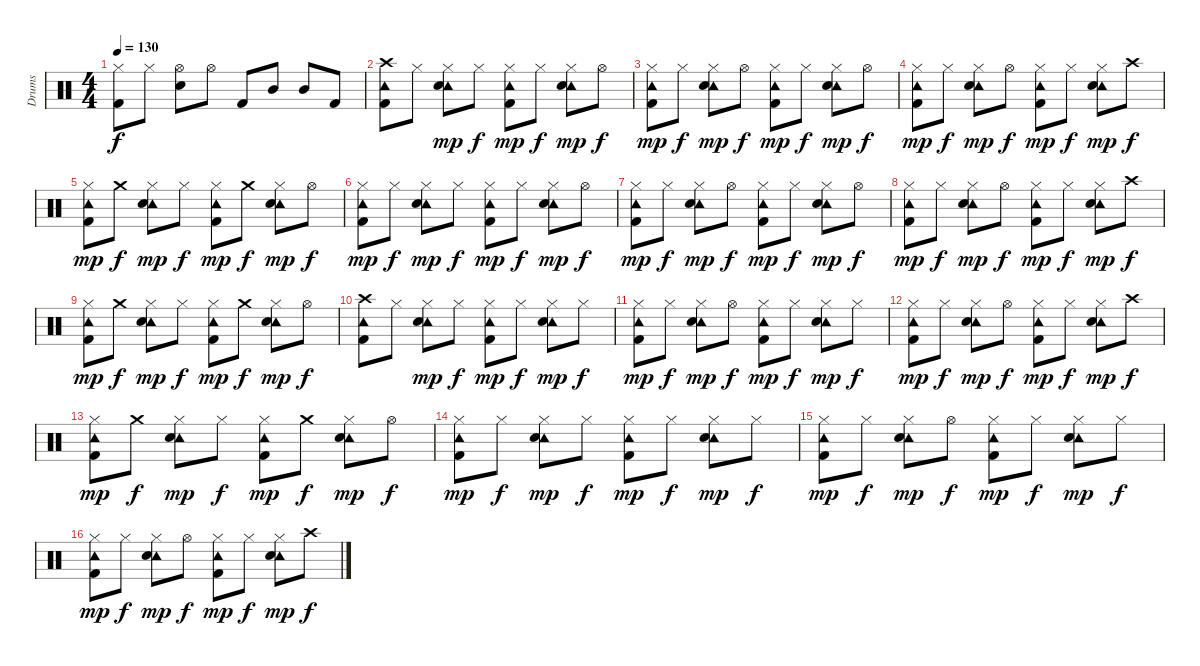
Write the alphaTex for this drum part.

\track ("Drums" "Drums") {instrument percussion}
\staff {score}
\articulation defaults
\ts (4 4)
\tempo 130
\clef neutral
\ks c
("Hi-Hat (closed)" "Kick (hit) 2").8{dy f} "Hi-Hat (closed)".8 ("Hi-Hat (open)" "Electric Snare (hit)").8 "Hi-Hat (open)".8 "Kick (hit) 2".8 "Mid Tom (hit)".8 "Mid Tom (hit)".8 "Kick (hit) 2".8 |
("Crash high (hit)" "Tambourine (hit)" "Kick (hit) 2").8 "Hi-Hat (closed)".8 ("Hi-Hat (closed)" "Tambourine (hit)" "Electric Snare (hit)").8{dy mp} "Hi-Hat (closed)".8{dy f} ("Hi-Hat (closed)" "Tambourine (hit)" "Kick (hit) 2").8{dy mp} "Hi-Hat (closed)".8{dy f} ("Hi-Hat (closed)" "Tambourine (hit)" "Electric Snare (hit)").8{dy mp} "Hi-Hat (open)".8{dy f} |
("Hi-Hat (closed)" "Tambourine (hit)" "Kick (hit) 2").8{dy mp} "Hi-Hat (closed)".8{dy f} ("Hi-Hat (closed)" "Tambourine (hit)" "Electric Snare (hit)").8{dy mp} "Hi-Hat (open)".8{dy f} ("Hi-Hat (closed)" "Tambourine (hit)" "Kick (hit) 2").8{dy mp} "Hi-Hat (closed)".8{dy f} ("Hi-Hat (closed)" "Tambourine (hit)" "Electric Snare (hit)").8{dy mp} "Hi-Hat (open)".8{dy f} |
("Hi-Hat (closed)" "Tambourine (hit)" "Kick (hit) 2").8{dy mp} "Hi-Hat (closed)".8{dy f} ("Hi-Hat (closed)" "Tambourine (hit)" "Electric Snare (hit)").8{dy mp} "Hi-Hat (open)".8{dy f} ("Hi-Hat (closed)" "Tambourine (hit)" "Kick (hit) 2").8{dy mp} "Hi-Hat (closed)".8{dy f} ("Hi-Hat (closed)" "Tambourine (hit)" "Electric Snare (hit)").8{dy mp} "Crash high (hit)".8{dy f} |
("Hi-Hat (closed)" "Tambourine (hit)" "Kick (hit) 2").8{dy mp} "Crash medium (hit)".8{dy f} ("Hi-Hat (closed)" "Tambourine (hit)" "Electric Snare (hit)").8{dy mp} "Hi-Hat (closed)".8{dy f} ("Hi-Hat (closed)" "Tambourine (hit)" "Kick (hit) 2").8{dy mp} "Crash medium (hit)".8{dy f} ("Hi-Hat (closed)" "Tambourine (hit)" "Electric Snare (hit)").8{dy mp} "Hi-Hat (open)".8{dy f} |
("Hi-Hat (closed)" "Tambourine (hit)" "Kick (hit) 2").8{dy mp} "Hi-Hat (closed)".8{dy f} ("Hi-Hat (closed)" "Tambourine (hit)" "Electric Snare (hit)").8{dy mp} "Hi-Hat (closed)".8{dy f} ("Hi-Hat (closed)" "Tambourine (hit)" "Kick (hit) 2").8{dy mp} "Hi-Hat (closed)".8{dy f} ("Hi-Hat (closed)" "Tambourine (hit)" "Electric Snare (hit)").8{dy mp} "Hi-Hat (open)".8{dy f} |
("Hi-Hat (closed)" "Tambourine (hit)" "Kick (hit) 2").8{dy mp} "Hi-Hat (closed)".8{dy f} ("Hi-Hat (closed)" "Tambourine (hit)" "Electric Snare (hit)").8{dy mp} "Hi-Hat (open)".8{dy f} ("Hi-Hat (closed)" "Tambourine (hit)" "Kick (hit) 2").8{dy mp} "Hi-Hat (closed)".8{dy f} ("Hi-Hat (closed)" "Tambourine (hit)" "Electric Snare (hit)").8{dy mp} "Hi-Hat (open)".8{dy f} |
("Hi-Hat (closed)" "Tambourine (hit)" "Kick (hit) 2").8{dy mp} "Hi-Hat (closed)".8{dy f} ("Hi-Hat (closed)" "Tambourine (hit)" "Electric Snare (hit)").8{dy mp} "Hi-Hat (open)".8{dy f} ("Hi-Hat (closed)" "Tambourine (hit)" "Kick (hit) 2").8{dy mp} "Hi-Hat (closed)".8{dy f} ("Hi-Hat (closed)" "Tambourine (hit)" "Electric Snare (hit)").8{dy mp} "Crash high (hit)".8{dy f} |
("Hi-Hat (closed)" "Tambourine (hit)" "Kick (hit) 2").8{dy mp} "Crash medium (hit)".8{dy f} ("Hi-Hat (closed)" "Tambourine (hit)" "Electric Snare (hit)").8{dy mp} "Hi-Hat (closed)".8{dy f} ("Hi-Hat (closed)" "Tambourine (hit)" "Kick (hit) 2").8{dy mp} "Crash medium (hit)".8{dy f} ("Hi-Hat (closed)" "Tambourine (hit)" "Electric Snare (hit)").8{dy mp} "Hi-Hat (open)".8{dy f} |
("Crash high (hit)" "Tambourine (hit)" "Kick (hit) 2").8 "Hi-Hat (closed)".8 ("Hi-Hat (closed)" "Tambourine (hit)" "Electric Snare (hit)").8{dy mp} "Hi-Hat (closed)".8{dy f} ("Hi-Hat (closed)" "Tambourine (hit)" "Kick (hit) 2").8{dy mp} "Hi-Hat (closed)".8{dy f} ("Hi-Hat (closed)" "Tambourine (hit)" "Electric Snare (hit)").8{dy mp} "Hi-Hat (closed)".8{dy f} |
("Hi-Hat (closed)" "Tambourine (hit)" "Kick (hit) 2").8{dy mp} "Hi-Hat (closed)".8{dy f} ("Hi-Hat (closed)" "Tambourine (hit)" "Electric Snare (hit)").8{dy mp} "Hi-Hat (open)".8{dy f} ("Hi-Hat (closed)" "Tambourine (hit)" "Kick (hit) 2").8{dy mp} "Hi-Hat (closed)".8{dy f} ("Hi-Hat (closed)" "Tambourine (hit)" "Electric Snare (hit)").8{dy mp} "Hi-Hat (closed)".8{dy f} |
("Hi-Hat (closed)" "Tambourine (hit)" "Kick (hit) 2").8{dy mp} "Hi-Hat (closed)".8{dy f} ("Hi-Hat (closed)" "Tambourine (hit)" "Electric Snare (hit)").8{dy mp} "Hi-Hat (open)".8{dy f} ("Hi-Hat (closed)" "Tambourine (hit)" "Kick (hit) 2").8{dy mp} "Hi-Hat (closed)".8{dy f} ("Hi-Hat (closed)" "Tambourine (hit)" "Electric Snare (hit)").8{dy mp} "Crash high (hit)".8{dy f} |
("Hi-Hat (closed)" "Tambourine (hit)" "Kick (hit) 2").8{dy mp} "Crash medium (hit)".8{dy f} ("Hi-Hat (closed)" "Tambourine (hit)" "Electric Snare (hit)").8{dy mp} "Hi-Hat (closed)".8{dy f} ("Hi-Hat (closed)" "Tambourine (hit)" "Kick (hit) 2").8{dy mp} "Crash medium (hit)".8{dy f} ("Hi-Hat (closed)" "Tambourine (hit)" "Electric Snare (hit)").8{dy mp} "Hi-Hat (open)".8{dy f} |
("Hi-Hat (closed)" "Tambourine (hit)" "Kick (hit) 2").8{dy mp} "Hi-Hat (closed)".8{dy f} ("Hi-Hat (closed)" "Tambourine (hit)" "Electric Snare (hit)").8{dy mp} "Hi-Hat (closed)".8{dy f} ("Hi-Hat (closed)" "Tambourine (hit)" "Kick (hit) 2").8{dy mp} "Hi-Hat (closed)".8{dy f} ("Hi-Hat (closed)" "Tambourine (hit)" "Electric Snare (hit)").8{dy mp} "Hi-Hat (closed)".8{dy f} |
("Hi-Hat (closed)" "Tambourine (hit)" "Kick (hit) 2").8{dy mp} "Hi-Hat (closed)".8{dy f} ("Hi-Hat (closed)" "Tambourine (hit)" "Electric Snare (hit)").8{dy mp} "Hi-Hat (open)".8{dy f} ("Hi-Hat (closed)" "Tambourine (hit)" "Kick (hit) 2").8{dy mp} "Hi-Hat (closed)".8{dy f} ("Hi-Hat (closed)" "Tambourine (hit)" "Electric Snare (hit)").8{dy mp} "Hi-Hat (closed)".8{dy f} |
("Hi-Hat (closed)" "Tambourine (hit)" "Kick (hit) 2").8{dy mp} "Hi-Hat (closed)".8{dy f} ("Hi-Hat (closed)" "Tambourine (hit)" "Electric Snare (hit)").8{dy mp} "Hi-Hat (open)".8{dy f} ("Hi-Hat (closed)" "Tambourine (hit)" "Kick (hit) 2").8{dy mp} "Hi-Hat (closed)".8{dy f} ("Hi-Hat (closed)" "Tambourine (hit)" "Electric Snare (hit)").8{dy mp} "Crash high (hit)".8{dy f}
